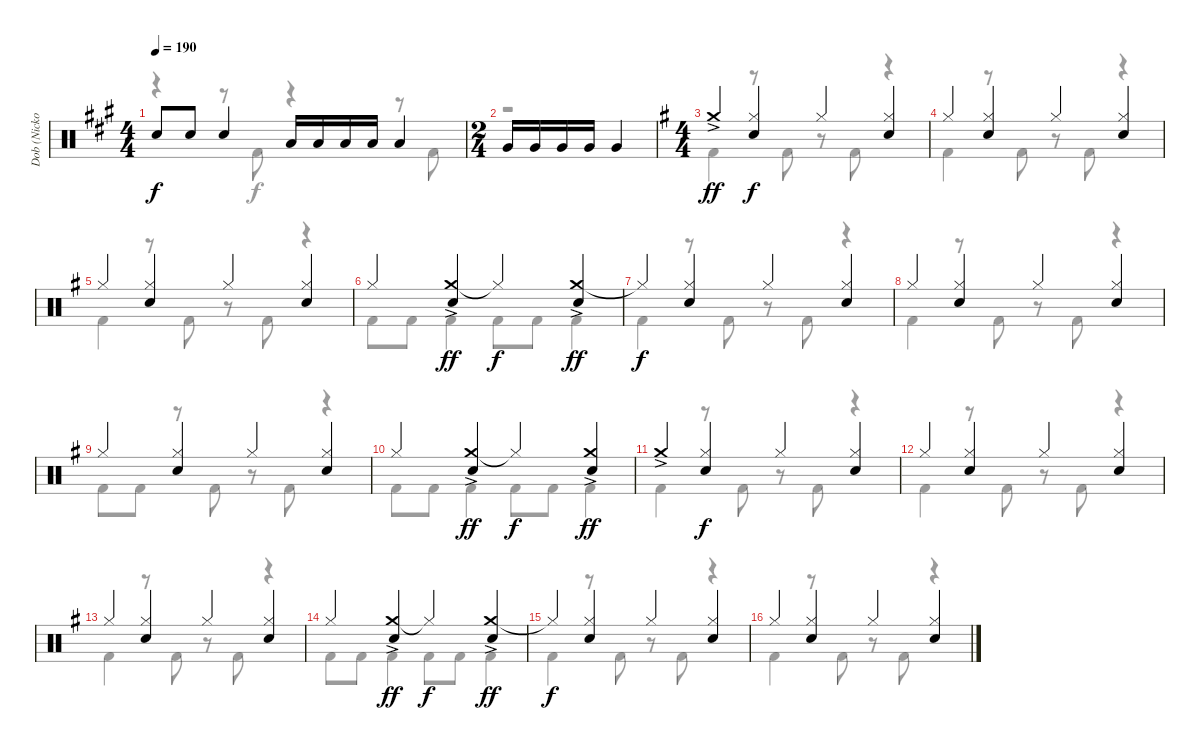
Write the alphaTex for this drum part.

\track ("Dob (Nicko McBrain)" "Dob (Nicko") {instrument percussion}
\staff {score}
\articulation defaults
\voice
\ts (4 4)
\tempo 190
\clef neutral
\ks a "Electric Snare (hit)".8{dy f} "Electric Snare (hit)".8 "Electric Snare (hit)".4 "Low Tom (hit)".16 "Low Tom (hit)".16 "Low Tom (hit)".16 "Low Tom (hit)".16 "Low Tom (hit)".4
|
\ts (2 4)
"Very Low Tom (hit)".16 "Very Low Tom (hit)".16 "Very Low Tom (hit)".16 "Very Low Tom (hit)".16 "Very Low Tom (hit)".4 |
\ts (4 4)
\ks g "Crash medium (hit)"{ac}.4{dy ff}
("Hi-Hat (closed)" "Electric Snare (hit)").4{dy f} "Hi-Hat (closed)".4 ("Hi-Hat (closed)" "Electric Snare (hit)").4 |
"Hi-Hat (closed)".4 ("Hi-Hat (closed)" "Electric Snare (hit)").4 "Hi-Hat (closed)".4 ("Hi-Hat (closed)" "Electric Snare (hit)").4 |
"Hi-Hat (closed)".4 ("Hi-Hat (closed)" "Electric Snare (hit)").4 "Hi-Hat (closed)".4 ("Hi-Hat (closed)" "Electric Snare (hit)").4 |
"Hi-Hat (closed)".4 ("Crash medium (hit)"{ac} "Electric Snare (hit)").4{dy ff} "Hi-Hat (closed)"{t}.4{dy f} ("Crash medium (hit)"{ac} "Electric Snare (hit)").4{dy ff} |
"Hi-Hat (closed)"{t}.4{dy f} ("Hi-Hat (closed)" "Electric Snare (hit)").4 "Hi-Hat (closed)".4 ("Hi-Hat (closed)" "Electric Snare (hit)").4 |
"Hi-Hat (closed)".4 ("Hi-Hat (closed)" "Electric Snare (hit)").4 "Hi-Hat (closed)".4 ("Hi-Hat (closed)" "Electric Snare (hit)").4 |
"Hi-Hat (closed)".4 ("Hi-Hat (closed)" "Electric Snare (hit)").4 "Hi-Hat (closed)".4 ("Hi-Hat (closed)" "Electric Snare (hit)").4 |
"Hi-Hat (closed)".4 ("Crash medium (hit)"{ac} "Electric Snare (hit)").4{dy ff} "Hi-Hat (closed)"{t}.4{dy f} ("Crash medium (hit)"{ac} "Electric Snare (hit)").4{dy ff} |
"Crash medium (hit)"{ac}.4 ("Hi-Hat (closed)" "Electric Snare (hit)").4{dy f} "Hi-Hat (closed)".4 ("Hi-Hat (closed)" "Electric Snare (hit)").4 |
"Hi-Hat (closed)".4 ("Hi-Hat (closed)" "Electric Snare (hit)").4 "Hi-Hat (closed)".4 ("Hi-Hat (closed)" "Electric Snare (hit)").4 |
"Hi-Hat (closed)".4 ("Hi-Hat (closed)" "Electric Snare (hit)").4 "Hi-Hat (closed)".4 ("Hi-Hat (closed)" "Electric Snare (hit)").4 |
"Hi-Hat (closed)".4 ("Crash medium (hit)"{ac} "Electric Snare (hit)").4{dy ff} "Hi-Hat (closed)"{t}.4{dy f} ("Crash medium (hit)"{ac} "Electric Snare (hit)").4{dy ff} |
"Hi-Hat (closed)"{t}.4{dy f} ("Hi-Hat (closed)" "Electric Snare (hit)").4 "Hi-Hat (closed)".4 ("Hi-Hat (closed)" "Electric Snare (hit)").4 |
"Hi-Hat (closed)".4 ("Hi-Hat (closed)" "Electric Snare (hit)").4 "Hi-Hat (closed)".4 ("Hi-Hat (closed)" "Electric Snare (hit)").4
\voice
\clef neutral
\ottava regular
\simile none
\ks a
r.4{dy f} r.8 "Kick (hit) 2".8 r.4 r.8 "Kick (hit) 2".8 |
r.2 |
\ks g "Kick (hit) 2".4
r.8 "Kick (hit) 2".8 r.8 "Kick (hit) 2".8 r.4 |
"Kick (hit) 2".4 r.8 "Kick (hit) 2".8 r.8 "Kick (hit) 2".8 r.4 |
"Kick (hit) 2".4 r.8 "Kick (hit) 2".8 r.8 "Kick (hit) 2".8 r.4 |
"Kick (hit) 2".8 "Kick (hit) 2".8 "Kick (hit) 2".4 "Kick (hit) 2".8 "Kick (hit) 2".8 "Kick (hit) 2".4 |
"Kick (hit) 2".4 r.8 "Kick (hit) 2".8 r.8 "Kick (hit) 2".8 r.4 |
"Kick (hit) 2".4 r.8 "Kick (hit) 2".8 r.8 "Kick (hit) 2".8 r.4 |
"Kick (hit) 2".8 "Kick (hit) 2".8 r.8 "Kick (hit) 2".8 r.8 "Kick (hit) 2".8 r.4 |
"Kick (hit) 2".8 "Kick (hit) 2".8 "Kick (hit) 2".4 "Kick (hit) 2".8 "Kick (hit) 2".8 "Kick (hit) 2".4 |
"Kick (hit) 2".4 r.8 "Kick (hit) 2".8 r.8 "Kick (hit) 2".8 r.4 |
"Kick (hit) 2".4 r.8 "Kick (hit) 2".8 r.8 "Kick (hit) 2".8 r.4 |
"Kick (hit) 2".4 r.8 "Kick (hit) 2".8 r.8 "Kick (hit) 2".8 r.4 |
"Kick (hit) 2".8 "Kick (hit) 2".8 "Kick (hit) 2".4 "Kick (hit) 2".8 "Kick (hit) 2".8 "Kick (hit) 2".4 |
"Kick (hit) 2".4 r.8 "Kick (hit) 2".8 r.8 "Kick (hit) 2".8 r.4 |
"Kick (hit) 2".4 r.8 "Kick (hit) 2".8 r.8 "Kick (hit) 2".8 r.4
